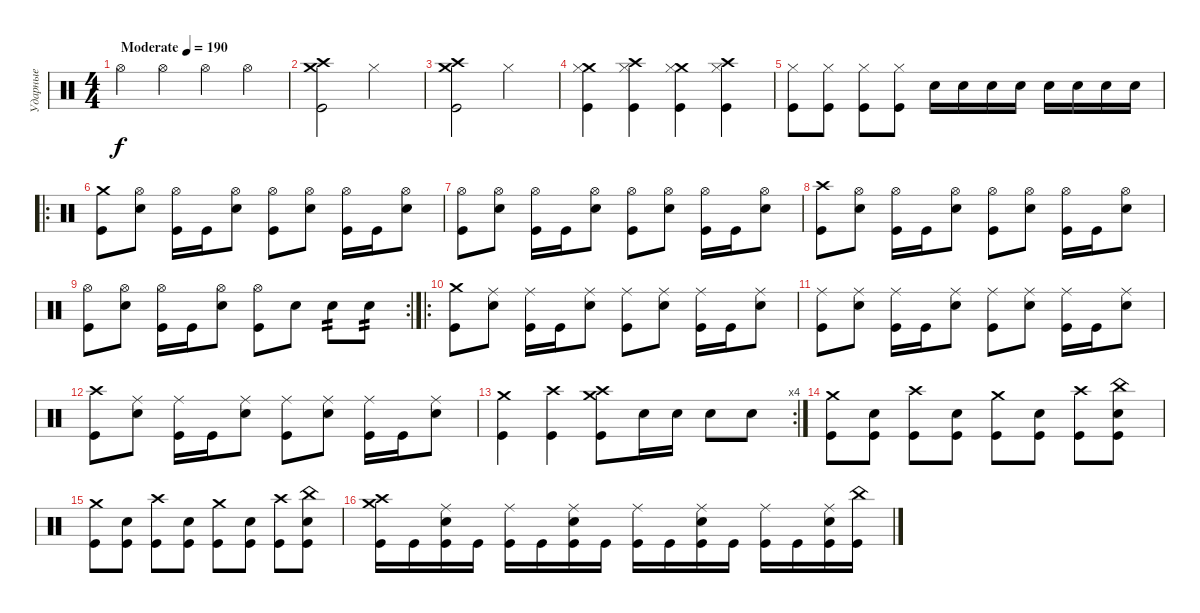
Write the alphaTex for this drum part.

\track ("Ударные" "Ударные") {instrument percussion}
\staff {score}
\articulation defaults
\ts (4 4)
\tempo (190 "Moderate")
\clef neutral
\ks c "Hi-Hat (open)".4{dy f} "Hi-Hat (open)".4 "Hi-Hat (open)".4 "Hi-Hat (open)".4
|
("Kick (hit)" "Crash medium (hit)" "Crash high (hit)").2 "Hi-Hat (closed)".2 |
("Kick (hit)" "Crash medium (hit)" "Crash high (hit)").2 "Hi-Hat (closed)".2 |
("Crash medium (hit)" "Hi-Hat (closed)" "Kick (hit)").4 ("Crash high (hit)" "Hi-Hat (closed)" "Kick (hit)").4 ("Crash medium (hit)" "Hi-Hat (closed)" "Kick (hit)").4 ("Crash high (hit)" "Hi-Hat (closed)" "Kick (hit)").4 |
("Kick (hit)" "Hi-Hat (closed)").8 ("Kick (hit)" "Hi-Hat (closed)").8 ("Kick (hit)" "Hi-Hat (closed)").8 ("Kick (hit)" "Hi-Hat (closed)").8 "Electric Snare (hit)".16 "Electric Snare (hit)".16 "Electric Snare (hit)".16 "Electric Snare (hit)".16 "Electric Snare (hit)".16 "Electric Snare (hit)".16 "Electric Snare (hit)".16 "Electric Snare (hit)".16 |
\ro
("Kick (hit)" "Crash medium (hit)").8 ("Electric Snare (hit)" "Hi-Hat (open)").8 ("Kick (hit)" "Hi-Hat (open)").16 "Kick (hit)".16 ("Electric Snare (hit)" "Hi-Hat (open)").8 ("Kick (hit)" "Hi-Hat (open)").8 ("Electric Snare (hit)" "Hi-Hat (open)").8 ("Kick (hit)" "Hi-Hat (open)").16 "Kick (hit)".16 ("Electric Snare (hit)" "Hi-Hat (open)").8 |
("Kick (hit)" "Hi-Hat (open)").8 ("Electric Snare (hit)" "Hi-Hat (open)").8 ("Kick (hit)" "Hi-Hat (open)").16 "Kick (hit)".16 ("Electric Snare (hit)" "Hi-Hat (open)").8 ("Kick (hit)" "Hi-Hat (open)").8 ("Electric Snare (hit)" "Hi-Hat (open)").8 ("Kick (hit)" "Hi-Hat (open)").16 "Kick (hit)".16 ("Electric Snare (hit)" "Hi-Hat (open)").8 |
("Kick (hit)" "Crash high (hit)").8 ("Electric Snare (hit)" "Hi-Hat (open)").8 ("Kick (hit)" "Hi-Hat (open)").16 "Kick (hit)".16 ("Electric Snare (hit)" "Hi-Hat (open)").8 ("Kick (hit)" "Hi-Hat (open)").8 ("Electric Snare (hit)" "Hi-Hat (open)").8 ("Kick (hit)" "Hi-Hat (open)").16 "Kick (hit)".16 ("Electric Snare (hit)" "Hi-Hat (open)").8 |
\rc 2
("Kick (hit)" "Hi-Hat (open)").8 ("Electric Snare (hit)" "Hi-Hat (open)").8 ("Kick (hit)" "Hi-Hat (open)").16 "Kick (hit)".16 ("Electric Snare (hit)" "Hi-Hat (open)").8 ("Kick (hit)" "Hi-Hat (open)").8 "Electric Snare (hit)".8 "Electric Snare (hit)".8{tp 2} "Electric Snare (hit)".8{tp 2} |
\ro
("Kick (hit)" "Crash medium (hit)").8 ("Electric Snare (hit)" "Ride (middle)").8 ("Kick (hit)" "Ride (middle)").16 "Kick (hit)".16 ("Electric Snare (hit)" "Ride (middle)").8 ("Kick (hit)" "Ride (middle)").8 ("Electric Snare (hit)" "Ride (middle)").8 ("Kick (hit)" "Ride (middle)").16 "Kick (hit)".16 ("Electric Snare (hit)" "Ride (middle)").8 |
("Kick (hit)" "Ride (middle)").8 ("Electric Snare (hit)" "Ride (middle)").8 ("Kick (hit)" "Ride (middle)").16 "Kick (hit)".16 ("Electric Snare (hit)" "Ride (middle)").8 ("Kick (hit)" "Ride (middle)").8 ("Electric Snare (hit)" "Ride (middle)").8 ("Kick (hit)" "Ride (middle)").16 "Kick (hit)".16 ("Electric Snare (hit)" "Ride (middle)").8 |
("Kick (hit)" "Crash high (hit)").8 ("Electric Snare (hit)" "Ride (middle)").8 ("Kick (hit)" "Ride (middle)").16 "Kick (hit)".16 ("Electric Snare (hit)" "Ride (middle)").8 ("Kick (hit)" "Ride (middle)").8 ("Electric Snare (hit)" "Ride (middle)").8 ("Kick (hit)" "Ride (middle)").16 "Kick (hit)".16 ("Electric Snare (hit)" "Ride (middle)").8 |
\rc 4
("Kick (hit)" "Crash medium (hit)").4 ("Crash high (hit)" "Kick (hit)").4 ("Crash high (hit)" "Crash medium (hit)" "Kick (hit)").8 "Electric Snare (hit)".16 "Electric Snare (hit)".16 "Electric Snare (hit)".8 "Electric Snare (hit)".8 |
("Kick (hit)" "Crash medium (hit)").8 ("Kick (hit)" "Electric Snare (hit)").8 ("Kick (hit)" "Crash high (hit)").8 ("Kick (hit)" "Electric Snare (hit)").8 ("Kick (hit)" "Crash medium (hit)").8 ("Kick (hit)" "Electric Snare (hit)").8 ("Kick (hit)" "Crash high (hit)").8 ("Kick (hit)" "Electric Snare (hit)" "China (hit)").8 |
("Kick (hit)" "Crash medium (hit)").8 ("Kick (hit)" "Electric Snare (hit)").8 ("Kick (hit)" "Crash high (hit)").8 ("Kick (hit)" "Electric Snare (hit)").8 ("Kick (hit)" "Crash medium (hit)").8 ("Kick (hit)" "Electric Snare (hit)").8 ("Kick (hit)" "Crash high (hit)").8 ("Kick (hit)" "Electric Snare (hit)" "China (hit)").8 |
("Kick (hit)" "Crash medium (hit)" "Crash high (hit)").16 "Kick (hit)".16 ("Kick (hit)" "Electric Snare (hit)" "Ride (middle)").16 "Kick (hit)".16 ("Kick (hit)" "Ride (middle)").16 "Kick (hit)".16 ("Kick (hit)" "Electric Snare (hit)" "Ride (middle)").16 "Kick (hit)".16 ("Kick (hit)" "Ride (middle)").16 "Kick (hit)".16 ("Kick (hit)" "Electric Snare (hit)" "Ride (middle)").16 "Kick (hit)".16 ("Kick (hit)" "Ride (middle)").16 "Kick (hit)".16 ("Kick (hit)" "Electric Snare (hit)" "Ride (middle)").16 ("Kick (hit)" "China (hit)").16
